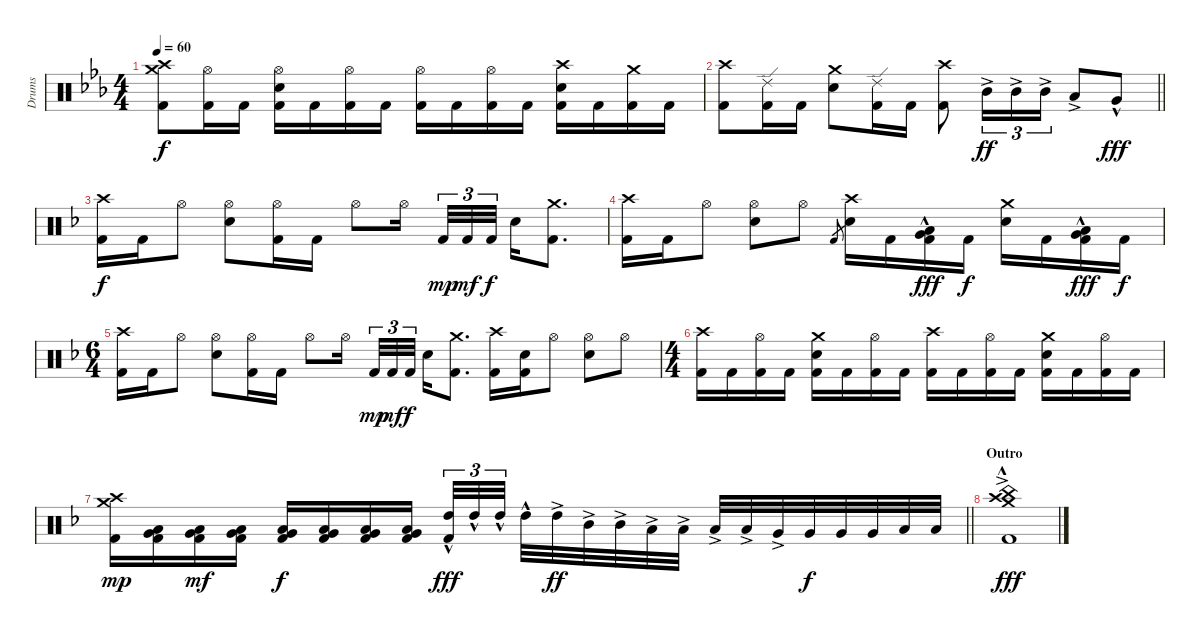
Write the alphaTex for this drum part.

\track ("Drums" "Drums") {instrument percussion}
\staff {score}
\articulation defaults
\ts (4 4)
\tempo 60
\clef neutral
\ks cminor
("Crash high (hit)" "Crash medium (hit)" "Kick (hit) 2").8{dy f} ("Hi-Hat (open)" "Kick (hit) 2").16 "Kick (hit) 2".16 ("Hi-Hat (open)" "Snare (hit) 2" "Kick (hit) 2").16 "Kick (hit) 2".16 ("Hi-Hat (open)" "Kick (hit) 2").16 "Kick (hit) 2".16 ("Hi-Hat (open)" "Kick (hit) 2").16 "Kick (hit) 2".16 ("Hi-Hat (open)" "Kick (hit) 2").16 "Kick (hit) 2".16 ("Crash high (hit)" "Snare (hit) 2" "Kick (hit) 2").16 "Kick (hit) 2".16 ("Crash medium (hit)" "Kick (hit) 2").16 "Kick (hit) 2".16 |
\barLineRight lightlight
("Crash high (hit)" "Kick (hit) 2").8 ("Ride (edge) 2" "Kick (hit) 2").16 "Kick (hit) 2".16 ("Crash medium (hit)" "Snare (hit) 2").8 ("Ride (edge) 2" "Kick (hit) 2").16 "Kick (hit) 2".16 ("Crash high (hit)" "Kick (hit) 2").8 "Mid Tom (hit)"{ac}.16{tu (3 2) dy ff} "Mid Tom (hit)"{ac}.16{tu (3 2)} "Mid Tom (hit)"{ac}.16{tu (3 2)} "Low Tom (hit)"{ac}.8 "Very Low Tom (hit)"{hac}.8{dy fff} |
\section ("" "")
\ks dminor
("Crash high (hit)" "Kick (hit) 2").16{dy f} "Kick (hit) 2".16 "Hi-Hat (open)".8 ("Hi-Hat (open)" "Snare (hit) 2").8 ("Hi-Hat (open)" "Kick (hit) 2").16 "Kick (hit) 2".16 "Hi-Hat (open)".8 "Hi-Hat (open)".16{beam splitsecondary} "Kick (hit) 2".32{tu (3 2) dy mp} "Kick (hit) 2".32{tu (3 2) dy mf} "Kick (hit) 2".32{tu (3 2) dy f} "Snare (hit) 2".16 ("Crash medium (hit)" "Kick (hit) 2").8{d} |
("Crash high (hit)" "Kick (hit) 2").16 "Kick (hit) 2".16 "Hi-Hat (open)".8 ("Hi-Hat (open)" "Snare (hit) 2").8 "Hi-Hat (open)".8 "Kick (hit) 2".8{gr} ("Crash high (hit)" "Snare (hit) 2").16 "Kick (hit) 2".16 ("Low Floor Tom (hit)" "Very Low Tom (hit)"{hac} "Kick (hit) 2").16{dy fff} "Kick (hit) 2".16{dy f} ("Crash medium (hit)" "Snare (hit) 2").16 "Kick (hit) 2".16 ("Low Floor Tom (hit)" "Very Low Tom (hit)"{hac} "Kick (hit) 2").16{dy fff} "Kick (hit) 2".16{dy f} |
\ts (6 4)
("Crash high (hit)" "Kick (hit) 2").16 "Kick (hit) 2".16 "Hi-Hat (open)".8 ("Hi-Hat (open)" "Snare (hit) 2").8 ("Hi-Hat (open)" "Kick (hit) 2").16 "Kick (hit) 2".16 "Hi-Hat (open)".8 "Hi-Hat (open)".16{beam splitsecondary} "Kick (hit) 2".32{tu (3 2) dy mp} "Kick (hit) 2".32{tu (3 2) dy mf} "Kick (hit) 2".32{tu (3 2) dy f} "Snare (hit) 2".16 ("Crash medium (hit)" "Kick (hit) 2").8{d} ("Crash high (hit)" "Kick (hit) 2").16 ("Snare (hit) 2" "Kick (hit) 2").16 "Hi-Hat (open)".8 ("Hi-Hat (open)" "Snare (hit) 2").8 "Hi-Hat (open)".8 |
\ts (4 4)
("Crash high (hit)" "Kick (hit) 2").16 "Kick (hit) 2".16 ("Hi-Hat (open)" "Kick (hit) 2").16 "Kick (hit) 2".16 ("Crash medium (hit)" "Snare (hit) 2" "Kick (hit) 2").16 "Kick (hit) 2".16 ("Hi-Hat (open)" "Kick (hit) 2").16 "Kick (hit) 2".16 ("Crash high (hit)" "Kick (hit) 2").16 "Kick (hit) 2".16 ("Hi-Hat (open)" "Kick (hit) 2").16 "Kick (hit) 2".16 ("Crash medium (hit)" "Snare (hit) 2" "Kick (hit) 2").16 "Kick (hit) 2".16 ("Hi-Hat (open)" "Kick (hit) 2").16 "Kick (hit) 2".16 |
\barLineRight lightlight
("Crash high (hit)" "Crash medium (hit)" "Kick (hit) 2").16{dy mp} ("Very Low Tom (hit)" "Low Floor Tom (hit)" "Kick (hit) 2").16 ("Very Low Tom (hit)" "Low Floor Tom (hit)" "Kick (hit) 2").16{dy mf} ("Very Low Tom (hit)" "Low Floor Tom (hit)" "Kick (hit) 2").16 ("Very Low Tom (hit)" "Low Floor Tom (hit)" "Kick (hit) 2").16{dy f} ("Very Low Tom (hit)" "Low Floor Tom (hit)" "Kick (hit) 2").16 ("Very Low Tom (hit)" "Low Floor Tom (hit)" "Kick (hit) 2").16 ("Very Low Tom (hit)" "Low Floor Tom (hit)" "Kick (hit) 2").16 ("High Tom (hit)"{hac} "Kick (hit) 2").32{tu (3 2) dy fff} "High Tom (hit)"{hac}.32{tu (3 2)} "High Tom (hit)"{hac}.32{tu (3 2) beam splitsecondary} "High Tom (hit)"{hac}.32 "High Tom (hit)"{ac}.32{dy ff} "Mid Tom (hit)"{ac}.32 "Mid Tom (hit)"{ac}.32 "Low Tom (hit)"{ac}.32 "Low Tom (hit)"{ac}.32 "Low Tom (hit)"{ac}.32 "Low Tom (hit)"{ac}.32 "Very Low Tom (hit)"{ac}.32 "Very Low Tom (hit)".32{dy f} "Very Low Tom (hit)".32 "Very Low Tom (hit)".32 "Low Floor Tom (hit)".32 "Low Floor Tom (hit)".32 |
\section ("" "Outro")
("Crash medium (hit)"{ac} "Crash high (hit)" "China (hit)"{hac} "Kick (hit) 2").1{dy fff}
